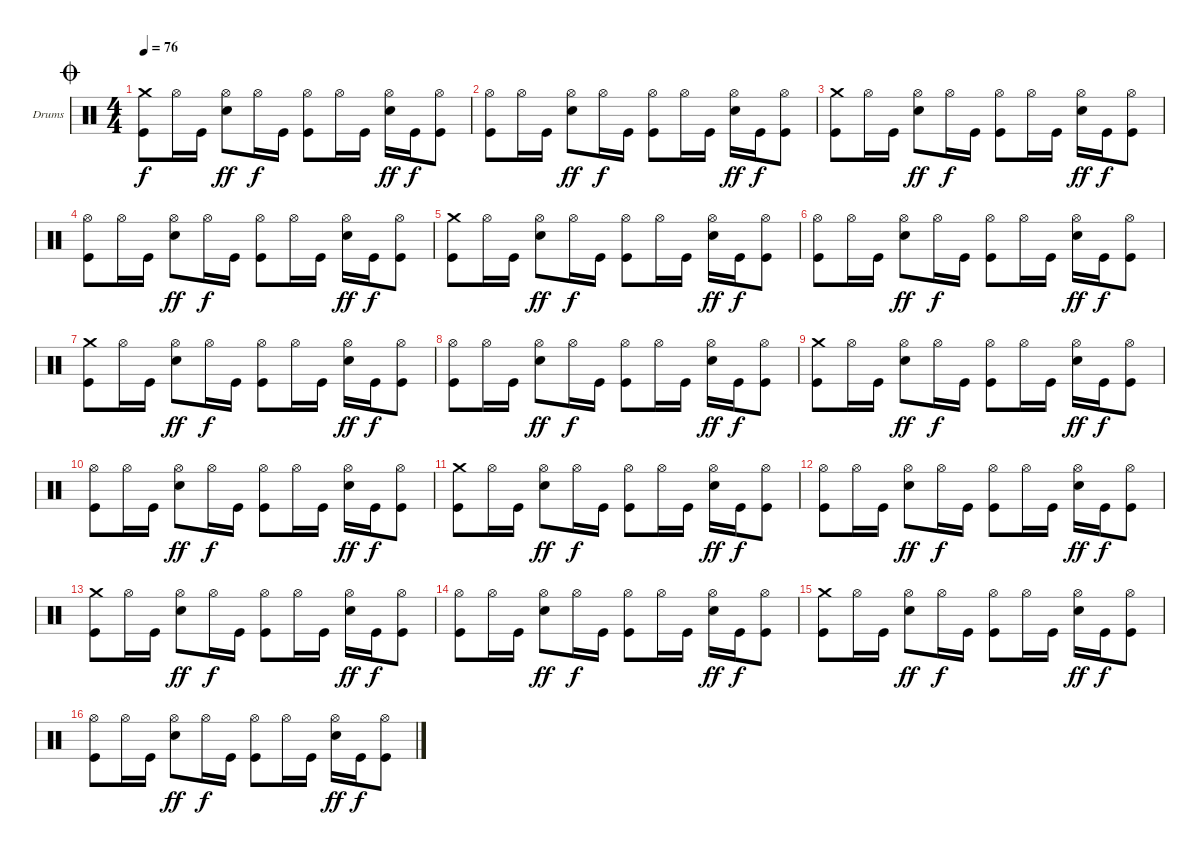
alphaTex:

\bracketExtendMode groupsimilarinstruments
\firstSystemTrackNameOrientation horizontal
\otherSystemsTrackNameOrientation horizontal
\track ("Drumkit" "Drums") {instrument percussion}
\staff {score}
\articulation defaults
\ts (4 4)
\jump coda
\tempo 76
\clef neutral
\ks c
("Crash medium (hit)" "Kick (hit)").8{dy f} "Hi-Hat (open)".16 "Kick (hit)".16 ("Snare (hit) 2" "Hi-Hat (open)").8{dy ff} "Hi-Hat (open)".16{dy f} "Kick (hit)".16 ("Kick (hit)" "Hi-Hat (open)").8 "Hi-Hat (open)".16 "Kick (hit)".16 ("Snare (hit) 2" "Hi-Hat (open)").16{dy ff} "Kick (hit)".16{dy f} ("Kick (hit)" "Hi-Hat (open)").8 |
("Hi-Hat (open)" "Kick (hit)").8 "Hi-Hat (open)".16 "Kick (hit)".16 ("Snare (hit) 2" "Hi-Hat (open)").8{dy ff} "Hi-Hat (open)".16{dy f} "Kick (hit)".16 ("Kick (hit)" "Hi-Hat (open)").8 "Hi-Hat (open)".16 "Kick (hit)".16 ("Snare (hit) 2" "Hi-Hat (open)").16{dy ff} "Kick (hit)".16{dy f} ("Kick (hit)" "Hi-Hat (open)").8 |
("Crash medium (hit)" "Kick (hit)").8 "Hi-Hat (open)".16 "Kick (hit)".16 ("Snare (hit) 2" "Hi-Hat (open)").8{dy ff} "Hi-Hat (open)".16{dy f} "Kick (hit)".16 ("Kick (hit)" "Hi-Hat (open)").8 "Hi-Hat (open)".16 "Kick (hit)".16 ("Snare (hit) 2" "Hi-Hat (open)").16{dy ff} "Kick (hit)".16{dy f} ("Kick (hit)" "Hi-Hat (open)").8 |
("Hi-Hat (open)" "Kick (hit)").8 "Hi-Hat (open)".16 "Kick (hit)".16 ("Snare (hit) 2" "Hi-Hat (open)").8{dy ff} "Hi-Hat (open)".16{dy f} "Kick (hit)".16 ("Kick (hit)" "Hi-Hat (open)").8 "Hi-Hat (open)".16 "Kick (hit)".16 ("Snare (hit) 2" "Hi-Hat (open)").16{dy ff} "Kick (hit)".16{dy f} ("Kick (hit)" "Hi-Hat (open)").8 |
("Crash medium (hit)" "Kick (hit)").8 "Hi-Hat (open)".16 "Kick (hit)".16 ("Snare (hit) 2" "Hi-Hat (open)").8{dy ff} "Hi-Hat (open)".16{dy f} "Kick (hit)".16 ("Kick (hit)" "Hi-Hat (open)").8 "Hi-Hat (open)".16 "Kick (hit)".16 ("Snare (hit) 2" "Hi-Hat (open)").16{dy ff} "Kick (hit)".16{dy f} ("Kick (hit)" "Hi-Hat (open)").8 |
("Hi-Hat (open)" "Kick (hit)").8 "Hi-Hat (open)".16 "Kick (hit)".16 ("Snare (hit) 2" "Hi-Hat (open)").8{dy ff} "Hi-Hat (open)".16{dy f} "Kick (hit)".16 ("Kick (hit)" "Hi-Hat (open)").8 "Hi-Hat (open)".16 "Kick (hit)".16 ("Snare (hit) 2" "Hi-Hat (open)").16{dy ff} "Kick (hit)".16{dy f} ("Kick (hit)" "Hi-Hat (open)").8 |
("Crash medium (hit)" "Kick (hit)").8 "Hi-Hat (open)".16 "Kick (hit)".16 ("Snare (hit) 2" "Hi-Hat (open)").8{dy ff} "Hi-Hat (open)".16{dy f} "Kick (hit)".16 ("Kick (hit)" "Hi-Hat (open)").8 "Hi-Hat (open)".16 "Kick (hit)".16 ("Snare (hit) 2" "Hi-Hat (open)").16{dy ff} "Kick (hit)".16{dy f} ("Kick (hit)" "Hi-Hat (open)").8 |
("Hi-Hat (open)" "Kick (hit)").8 "Hi-Hat (open)".16 "Kick (hit)".16 ("Snare (hit) 2" "Hi-Hat (open)").8{dy ff} "Hi-Hat (open)".16{dy f} "Kick (hit)".16 ("Kick (hit)" "Hi-Hat (open)").8 "Hi-Hat (open)".16 "Kick (hit)".16 ("Snare (hit) 2" "Hi-Hat (open)").16{dy ff} "Kick (hit)".16{dy f} ("Kick (hit)" "Hi-Hat (open)").8 |
("Crash medium (hit)" "Kick (hit)").8 "Hi-Hat (open)".16 "Kick (hit)".16 ("Snare (hit) 2" "Hi-Hat (open)").8{dy ff} "Hi-Hat (open)".16{dy f} "Kick (hit)".16 ("Kick (hit)" "Hi-Hat (open)").8 "Hi-Hat (open)".16 "Kick (hit)".16 ("Snare (hit) 2" "Hi-Hat (open)").16{dy ff} "Kick (hit)".16{dy f} ("Kick (hit)" "Hi-Hat (open)").8 |
("Hi-Hat (open)" "Kick (hit)").8 "Hi-Hat (open)".16 "Kick (hit)".16 ("Snare (hit) 2" "Hi-Hat (open)").8{dy ff} "Hi-Hat (open)".16{dy f} "Kick (hit)".16 ("Kick (hit)" "Hi-Hat (open)").8 "Hi-Hat (open)".16 "Kick (hit)".16 ("Snare (hit) 2" "Hi-Hat (open)").16{dy ff} "Kick (hit)".16{dy f} ("Kick (hit)" "Hi-Hat (open)").8 |
("Crash medium (hit)" "Kick (hit)").8 "Hi-Hat (open)".16 "Kick (hit)".16 ("Snare (hit) 2" "Hi-Hat (open)").8{dy ff} "Hi-Hat (open)".16{dy f} "Kick (hit)".16 ("Kick (hit)" "Hi-Hat (open)").8 "Hi-Hat (open)".16 "Kick (hit)".16 ("Snare (hit) 2" "Hi-Hat (open)").16{dy ff} "Kick (hit)".16{dy f} ("Kick (hit)" "Hi-Hat (open)").8 |
("Hi-Hat (open)" "Kick (hit)").8 "Hi-Hat (open)".16 "Kick (hit)".16 ("Snare (hit) 2" "Hi-Hat (open)").8{dy ff} "Hi-Hat (open)".16{dy f} "Kick (hit)".16 ("Kick (hit)" "Hi-Hat (open)").8 "Hi-Hat (open)".16 "Kick (hit)".16 ("Snare (hit) 2" "Hi-Hat (open)").16{dy ff} "Kick (hit)".16{dy f} ("Kick (hit)" "Hi-Hat (open)").8 |
("Crash medium (hit)" "Kick (hit)").8 "Hi-Hat (open)".16 "Kick (hit)".16 ("Snare (hit) 2" "Hi-Hat (open)").8{dy ff} "Hi-Hat (open)".16{dy f} "Kick (hit)".16 ("Kick (hit)" "Hi-Hat (open)").8 "Hi-Hat (open)".16 "Kick (hit)".16 ("Snare (hit) 2" "Hi-Hat (open)").16{dy ff} "Kick (hit)".16{dy f} ("Kick (hit)" "Hi-Hat (open)").8 |
("Hi-Hat (open)" "Kick (hit)").8 "Hi-Hat (open)".16 "Kick (hit)".16 ("Snare (hit) 2" "Hi-Hat (open)").8{dy ff} "Hi-Hat (open)".16{dy f} "Kick (hit)".16 ("Kick (hit)" "Hi-Hat (open)").8 "Hi-Hat (open)".16 "Kick (hit)".16 ("Snare (hit) 2" "Hi-Hat (open)").16{dy ff} "Kick (hit)".16{dy f} ("Kick (hit)" "Hi-Hat (open)").8 |
("Crash medium (hit)" "Kick (hit)").8 "Hi-Hat (open)".16 "Kick (hit)".16 ("Snare (hit) 2" "Hi-Hat (open)").8{dy ff} "Hi-Hat (open)".16{dy f} "Kick (hit)".16 ("Kick (hit)" "Hi-Hat (open)").8 "Hi-Hat (open)".16 "Kick (hit)".16 ("Snare (hit) 2" "Hi-Hat (open)").16{dy ff} "Kick (hit)".16{dy f} ("Kick (hit)" "Hi-Hat (open)").8 |
("Hi-Hat (open)" "Kick (hit)").8 "Hi-Hat (open)".16 "Kick (hit)".16 ("Snare (hit) 2" "Hi-Hat (open)").8{dy ff} "Hi-Hat (open)".16{dy f} "Kick (hit)".16 ("Kick (hit)" "Hi-Hat (open)").8 "Hi-Hat (open)".16 "Kick (hit)".16 ("Snare (hit) 2" "Hi-Hat (open)").16{dy ff} "Kick (hit)".16{dy f} ("Kick (hit)" "Hi-Hat (open)").8
